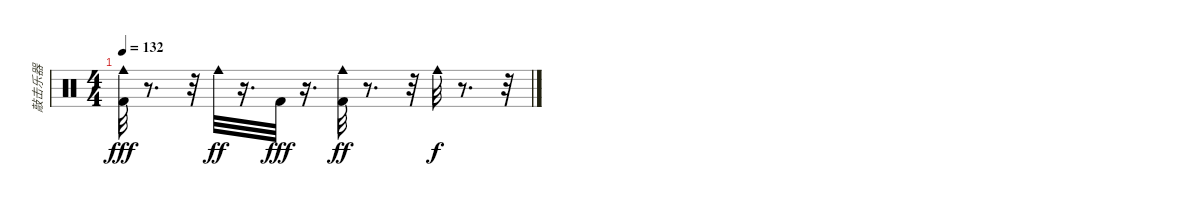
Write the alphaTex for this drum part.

\track ("敲击乐器" "敲击乐器") {instrument percussion}
\staff {score}
\articulation defaults
\ts (4 4)
\tempo 132
\clef neutral
\ks c
("Cowbell medium (hit)" "Kick (hit) 2").32{dy fff} r.8{d} r.32 "Cowbell medium (hit)".32{dy ff} r.16{d} "Kick (hit) 2".32{dy fff} r.16{d} ("Kick (hit) 2" "Cowbell medium (hit)").32{dy ff} r.8{d} r.32 "Cowbell medium (hit)".32{dy f} r.8{d} r.32
